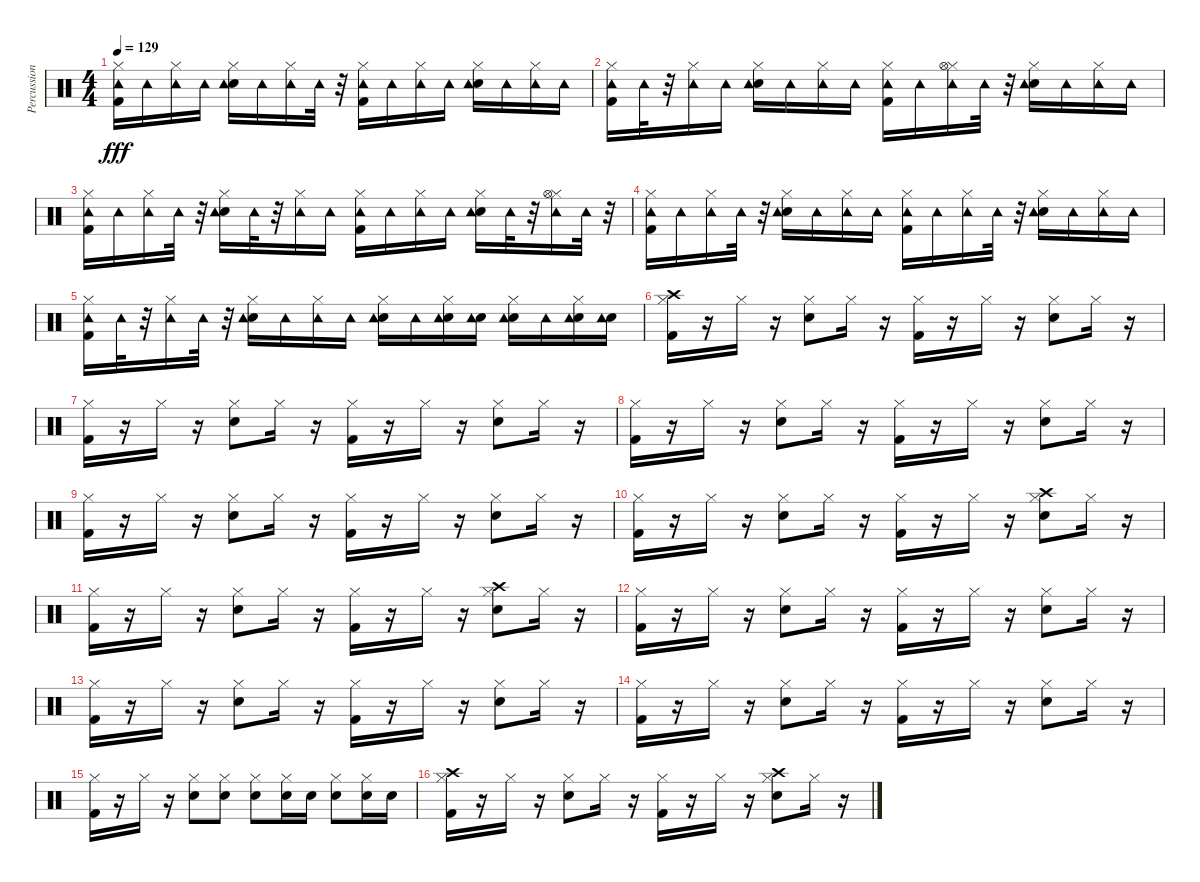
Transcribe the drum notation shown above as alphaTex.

\track ("Percussion" "Percussion") {instrument percussion}
\staff {score}
\articulation defaults
\ts (4 4)
\tempo 129
\clef neutral
\ks c
("Kick (hit) 2" "Tambourine (hit)" "Hi-Hat (closed)").16{dy fff} "Tambourine (hit)".16 ("Tambourine (hit)" "Hi-Hat (closed)").16 "Tambourine (hit)".16 ("Snare (hit) 2" "Tambourine (hit)" "Hi-Hat (closed)").16 "Tambourine (hit)".16 ("Tambourine (hit)" "Hi-Hat (closed)").16 "Tambourine (hit)".32 r.32 ("Kick (hit) 2" "Tambourine (hit)" "Hi-Hat (closed)").16 "Tambourine (hit)".16 ("Tambourine (hit)" "Hi-Hat (closed)").16 "Tambourine (hit)".16 ("Snare (hit) 2" "Tambourine (hit)" "Hi-Hat (closed)").16 "Tambourine (hit)".16 ("Tambourine (hit)" "Hi-Hat (closed)").16 "Tambourine (hit)".16 |
("Kick (hit) 2" "Tambourine (hit)" "Hi-Hat (closed)").16 "Tambourine (hit)".32 r.32 ("Tambourine (hit)" "Hi-Hat (closed)").16 "Tambourine (hit)".16 ("Snare (hit) 2" "Tambourine (hit)" "Hi-Hat (closed)").16 "Tambourine (hit)".16 ("Tambourine (hit)" "Hi-Hat (closed)").16 "Tambourine (hit)".16 ("Kick (hit) 2" "Tambourine (hit)" "Hi-Hat (closed)").16 "Tambourine (hit)".16 ("Tambourine (hit)" "Hi-Hat (closed)" "Hi-Hat (open)").16 "Tambourine (hit)".32 r.32 ("Snare (hit) 2" "Tambourine (hit)" "Hi-Hat (closed)").16 "Tambourine (hit)".16 ("Tambourine (hit)" "Hi-Hat (closed)").16 "Tambourine (hit)".16 |
("Kick (hit) 2" "Tambourine (hit)" "Hi-Hat (closed)").16 "Tambourine (hit)".16 ("Tambourine (hit)" "Hi-Hat (closed)").16 "Tambourine (hit)".32 r.32 ("Snare (hit) 2" "Tambourine (hit)" "Hi-Hat (closed)").16 "Tambourine (hit)".32 r.32 ("Tambourine (hit)" "Hi-Hat (closed)").16 "Tambourine (hit)".16 ("Kick (hit) 2" "Tambourine (hit)" "Hi-Hat (closed)").16 "Tambourine (hit)".16 ("Tambourine (hit)" "Hi-Hat (closed)").16 "Tambourine (hit)".16 ("Snare (hit) 2" "Tambourine (hit)" "Hi-Hat (closed)").16 "Tambourine (hit)".32 r.32 ("Tambourine (hit)" "Hi-Hat (closed)" "Hi-Hat (open)").16 "Tambourine (hit)".32 r.32 |
("Kick (hit) 2" "Tambourine (hit)" "Hi-Hat (closed)").16 "Tambourine (hit)".16 ("Tambourine (hit)" "Hi-Hat (closed)").16 "Tambourine (hit)".32 r.32 ("Snare (hit) 2" "Tambourine (hit)" "Hi-Hat (closed)").16 "Tambourine (hit)".16 ("Tambourine (hit)" "Hi-Hat (closed)").16 "Tambourine (hit)".16 ("Kick (hit) 2" "Tambourine (hit)" "Hi-Hat (closed)").16 "Tambourine (hit)".16 ("Tambourine (hit)" "Hi-Hat (closed)").16 "Tambourine (hit)".32 r.32 ("Snare (hit) 2" "Tambourine (hit)" "Hi-Hat (closed)").16 "Tambourine (hit)".16 ("Tambourine (hit)" "Hi-Hat (closed)").16 "Tambourine (hit)".16 |
("Kick (hit) 2" "Tambourine (hit)" "Hi-Hat (closed)").16 "Tambourine (hit)".32 r.32 ("Tambourine (hit)" "Hi-Hat (closed)").16 "Tambourine (hit)".32 r.32 ("Snare (hit) 2" "Tambourine (hit)" "Hi-Hat (closed)").16 "Tambourine (hit)".16 ("Tambourine (hit)" "Hi-Hat (closed)").16 "Tambourine (hit)".16 ("Snare (hit) 2" "Tambourine (hit)" "Hi-Hat (closed)").16 "Tambourine (hit)".16 ("Snare (hit) 2" "Tambourine (hit)" "Hi-Hat (closed)").16 ("Snare (hit) 2" "Tambourine (hit)").16 ("Snare (hit) 2" "Tambourine (hit)" "Hi-Hat (closed)").16 "Tambourine (hit)".16 ("Snare (hit) 2" "Tambourine (hit)" "Hi-Hat (closed)").16 ("Snare (hit) 2" "Tambourine (hit)").16 |
("Kick (hit) 2" "Hi-Hat (closed)" "Crash high (hit)").16 r.16 "Hi-Hat (closed)".16 r.16 ("Snare (hit) 2" "Hi-Hat (closed)").8 "Hi-Hat (closed)".16 r.16 ("Kick (hit) 2" "Hi-Hat (closed)").16 r.16 "Hi-Hat (closed)".16 r.16 ("Snare (hit) 2" "Hi-Hat (closed)").8 "Hi-Hat (closed)".16 r.16 |
("Kick (hit) 2" "Hi-Hat (closed)").16 r.16 "Hi-Hat (closed)".16 r.16 ("Snare (hit) 2" "Hi-Hat (closed)").8 "Hi-Hat (closed)".16 r.16 ("Kick (hit) 2" "Hi-Hat (closed)").16 r.16 "Hi-Hat (closed)".16 r.16 ("Snare (hit) 2" "Hi-Hat (closed)").8 "Hi-Hat (closed)".16 r.16 |
("Kick (hit) 2" "Hi-Hat (closed)").16 r.16 "Hi-Hat (closed)".16 r.16 ("Snare (hit) 2" "Hi-Hat (closed)").8 "Hi-Hat (closed)".16 r.16 ("Kick (hit) 2" "Hi-Hat (closed)").16 r.16 "Hi-Hat (closed)".16 r.16 ("Snare (hit) 2" "Hi-Hat (closed)").8 "Hi-Hat (closed)".16 r.16 |
("Kick (hit) 2" "Hi-Hat (closed)").16 r.16 "Hi-Hat (closed)".16 r.16 ("Snare (hit) 2" "Hi-Hat (closed)").8 "Hi-Hat (closed)".16 r.16 ("Kick (hit) 2" "Hi-Hat (closed)").16 r.16 "Hi-Hat (closed)".16 r.16 ("Snare (hit) 2" "Hi-Hat (closed)").8 "Hi-Hat (closed)".16 r.16 |
("Kick (hit) 2" "Hi-Hat (closed)").16 r.16 "Hi-Hat (closed)".16 r.16 ("Snare (hit) 2" "Hi-Hat (closed)").8 "Hi-Hat (closed)".16 r.16 ("Kick (hit) 2" "Hi-Hat (closed)").16 r.16 "Hi-Hat (closed)".16 r.16 ("Snare (hit) 2" "Hi-Hat (closed)" "Crash high (hit)").8 "Hi-Hat (closed)".16 r.16 |
("Kick (hit) 2" "Hi-Hat (closed)").16 r.16 "Hi-Hat (closed)".16 r.16 ("Snare (hit) 2" "Hi-Hat (closed)").8 "Hi-Hat (closed)".16 r.16 ("Kick (hit) 2" "Hi-Hat (closed)").16 r.16 "Hi-Hat (closed)".16 r.16 ("Snare (hit) 2" "Hi-Hat (closed)" "Crash high (hit)").8 "Hi-Hat (closed)".16 r.16 |
("Kick (hit) 2" "Hi-Hat (closed)").16 r.16 "Hi-Hat (closed)".16 r.16 ("Snare (hit) 2" "Hi-Hat (closed)").8 "Hi-Hat (closed)".16 r.16 ("Kick (hit) 2" "Hi-Hat (closed)").16 r.16 "Hi-Hat (closed)".16 r.16 ("Snare (hit) 2" "Hi-Hat (closed)").8 "Hi-Hat (closed)".16 r.16 |
("Kick (hit) 2" "Hi-Hat (closed)").16 r.16 "Hi-Hat (closed)".16 r.16 ("Snare (hit) 2" "Hi-Hat (closed)").8 "Hi-Hat (closed)".16 r.16 ("Kick (hit) 2" "Hi-Hat (closed)").16 r.16 "Hi-Hat (closed)".16 r.16 ("Snare (hit) 2" "Hi-Hat (closed)").8 "Hi-Hat (closed)".16 r.16 |
("Kick (hit) 2" "Hi-Hat (closed)").16 r.16 "Hi-Hat (closed)".16 r.16 ("Snare (hit) 2" "Hi-Hat (closed)").8 "Hi-Hat (closed)".16 r.16 ("Kick (hit) 2" "Hi-Hat (closed)").16 r.16 "Hi-Hat (closed)".16 r.16 ("Snare (hit) 2" "Hi-Hat (closed)").8 "Hi-Hat (closed)".16 r.16 |
("Kick (hit) 2" "Hi-Hat (closed)").16 r.16 "Hi-Hat (closed)".16 r.16 ("Snare (hit) 2" "Hi-Hat (closed)").8 ("Snare (hit) 2" "Hi-Hat (closed)").8 ("Snare (hit) 2" "Hi-Hat (closed)").8 ("Snare (hit) 2" "Hi-Hat (closed)").16 "Snare (hit) 2".16 ("Snare (hit) 2" "Hi-Hat (closed)").8 ("Snare (hit) 2" "Hi-Hat (closed)").16 "Snare (hit) 2".16 |
("Kick (hit) 2" "Hi-Hat (closed)" "Crash high (hit)").16 r.16 "Hi-Hat (closed)".16 r.16 ("Snare (hit) 2" "Hi-Hat (closed)").8 "Hi-Hat (closed)".16 r.16 ("Kick (hit) 2" "Hi-Hat (closed)").16 r.16 "Hi-Hat (closed)".16 r.16 ("Snare (hit) 2" "Hi-Hat (closed)" "Crash high (hit)").8 "Hi-Hat (closed)".16 r.16
